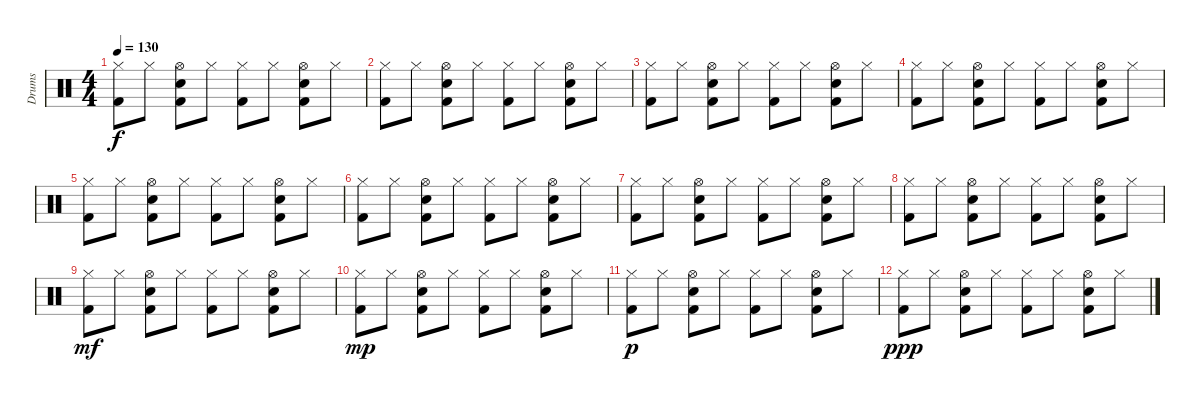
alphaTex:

\track ("Drums" "Drums") {instrument percussion}
\staff {score}
\articulation defaults
\ts (4 4)
\tempo 130
\clef neutral
\ks c
("Hi-Hat (closed)" "Kick (hit) 2").8{dy f} "Hi-Hat (closed)".8 ("Hi-Hat (open)" "Electric Snare (hit)" "Kick (hit) 2").8 "Hi-Hat (closed)".8 ("Hi-Hat (closed)" "Kick (hit) 2").8 "Hi-Hat (closed)".8 ("Hi-Hat (open)" "Electric Snare (hit)" "Kick (hit) 2").8 "Hi-Hat (closed)".8 |
("Hi-Hat (closed)" "Kick (hit) 2").8 "Hi-Hat (closed)".8 ("Hi-Hat (open)" "Electric Snare (hit)" "Kick (hit) 2").8 "Hi-Hat (closed)".8 ("Hi-Hat (closed)" "Kick (hit) 2").8 "Hi-Hat (closed)".8 ("Hi-Hat (open)" "Electric Snare (hit)" "Kick (hit) 2").8 "Hi-Hat (closed)".8 |
("Hi-Hat (closed)" "Kick (hit) 2").8 "Hi-Hat (closed)".8 ("Hi-Hat (open)" "Electric Snare (hit)" "Kick (hit) 2").8 "Hi-Hat (closed)".8 ("Hi-Hat (closed)" "Kick (hit) 2").8 "Hi-Hat (closed)".8 ("Hi-Hat (open)" "Electric Snare (hit)" "Kick (hit) 2").8 "Hi-Hat (closed)".8 |
("Hi-Hat (closed)" "Kick (hit) 2").8 "Hi-Hat (closed)".8 ("Hi-Hat (open)" "Electric Snare (hit)" "Kick (hit) 2").8 "Hi-Hat (closed)".8 ("Hi-Hat (closed)" "Kick (hit) 2").8 "Hi-Hat (closed)".8 ("Hi-Hat (open)" "Electric Snare (hit)" "Kick (hit) 2").8 "Hi-Hat (closed)".8 |
("Hi-Hat (closed)" "Kick (hit) 2").8 "Hi-Hat (closed)".8 ("Hi-Hat (open)" "Electric Snare (hit)" "Kick (hit) 2").8 "Hi-Hat (closed)".8 ("Hi-Hat (closed)" "Kick (hit) 2").8 "Hi-Hat (closed)".8 ("Hi-Hat (open)" "Electric Snare (hit)" "Kick (hit) 2").8 "Hi-Hat (closed)".8 |
("Hi-Hat (closed)" "Kick (hit) 2").8 "Hi-Hat (closed)".8 ("Hi-Hat (open)" "Electric Snare (hit)" "Kick (hit) 2").8 "Hi-Hat (closed)".8 ("Hi-Hat (closed)" "Kick (hit) 2").8 "Hi-Hat (closed)".8 ("Hi-Hat (open)" "Electric Snare (hit)" "Kick (hit) 2").8 "Hi-Hat (closed)".8 |
("Hi-Hat (closed)" "Kick (hit) 2").8 "Hi-Hat (closed)".8 ("Hi-Hat (open)" "Electric Snare (hit)" "Kick (hit) 2").8 "Hi-Hat (closed)".8 ("Hi-Hat (closed)" "Kick (hit) 2").8 "Hi-Hat (closed)".8 ("Hi-Hat (open)" "Electric Snare (hit)" "Kick (hit) 2").8 "Hi-Hat (closed)".8 |
("Hi-Hat (closed)" "Kick (hit) 2").8 "Hi-Hat (closed)".8 ("Hi-Hat (open)" "Electric Snare (hit)" "Kick (hit) 2").8 "Hi-Hat (closed)".8 ("Hi-Hat (closed)" "Kick (hit) 2").8 "Hi-Hat (closed)".8 ("Hi-Hat (open)" "Electric Snare (hit)" "Kick (hit) 2").8 "Hi-Hat (closed)".8 |
("Hi-Hat (closed)" "Kick (hit) 2").8{dy mf} "Hi-Hat (closed)".8 ("Hi-Hat (open)" "Electric Snare (hit)" "Kick (hit) 2").8 "Hi-Hat (closed)".8 ("Hi-Hat (closed)" "Kick (hit) 2").8 "Hi-Hat (closed)".8 ("Hi-Hat (open)" "Electric Snare (hit)" "Kick (hit) 2").8 "Hi-Hat (closed)".8 |
("Hi-Hat (closed)" "Kick (hit) 2").8{dy mp} "Hi-Hat (closed)".8 ("Hi-Hat (open)" "Electric Snare (hit)" "Kick (hit) 2").8 "Hi-Hat (closed)".8 ("Hi-Hat (closed)" "Kick (hit) 2").8 "Hi-Hat (closed)".8 ("Hi-Hat (open)" "Electric Snare (hit)" "Kick (hit) 2").8 "Hi-Hat (closed)".8 |
("Hi-Hat (closed)" "Kick (hit) 2").8{dy p} "Hi-Hat (closed)".8 ("Hi-Hat (open)" "Electric Snare (hit)" "Kick (hit) 2").8 "Hi-Hat (closed)".8 ("Hi-Hat (closed)" "Kick (hit) 2").8 "Hi-Hat (closed)".8 ("Hi-Hat (open)" "Electric Snare (hit)" "Kick (hit) 2").8 "Hi-Hat (closed)".8 |
("Hi-Hat (closed)" "Kick (hit) 2").8{dy ppp} "Hi-Hat (closed)".8 ("Hi-Hat (open)" "Electric Snare (hit)" "Kick (hit) 2").8 "Hi-Hat (closed)".8 ("Hi-Hat (closed)" "Kick (hit) 2").8 "Hi-Hat (closed)".8 ("Hi-Hat (open)" "Electric Snare (hit)" "Kick (hit) 2").8 "Hi-Hat (closed)".8
